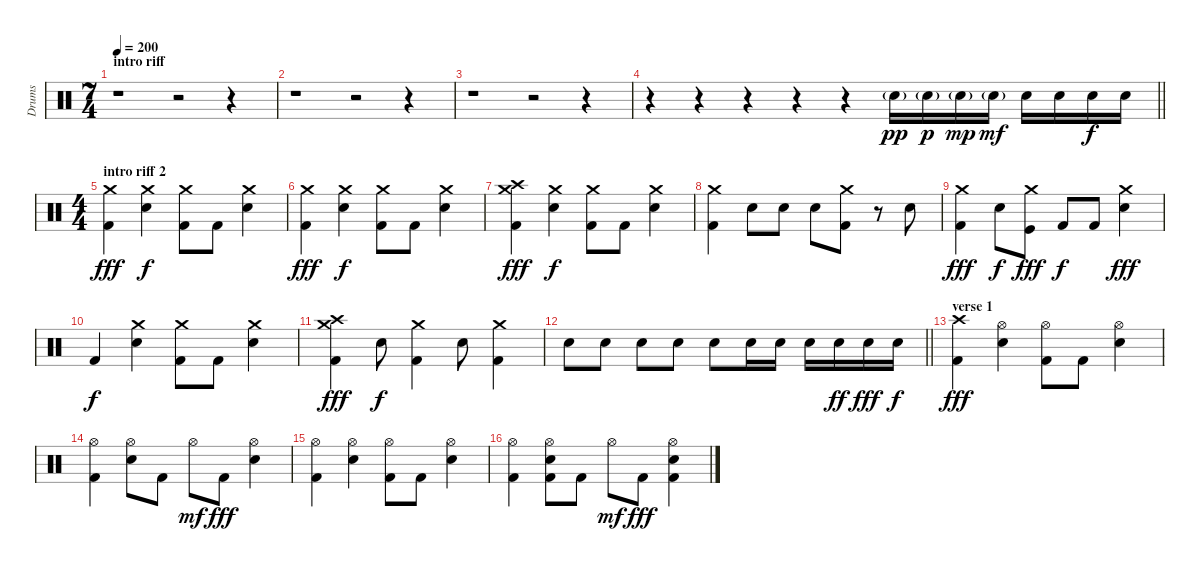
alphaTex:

\track ("Drums" "Drums") {instrument percussion}
\staff {score}
\articulation defaults
\ts (7 4)
\section ("" "intro riff")
\tempo 200
\clef neutral
\ks c
r.1{dy pp} r.2 r.4 |
r.1 r.2 r.4 |
r.1 r.2 r.4 |
\barLineRight lightlight
r.4 r.4 r.4 r.4 r.4 "Electric Snare (hit)"{g}.16 "Electric Snare (hit)"{g}.16{dy p} "Electric Snare (hit)"{g}.16{dy mp} "Electric Snare (hit)"{g}.16{dy mf} "Electric Snare (hit)".16 "Electric Snare (hit)".16 "Electric Snare (hit)".16{dy f} "Electric Snare (hit)".16 |
\ts (4 4)
\section ("" "intro riff 2")
("Crash medium (hit)" "Kick (hit) 2").4{dy fff} ("Crash medium (hit)" "Electric Snare (hit)").4{dy f} ("Crash medium (hit)" "Kick (hit) 2").8 "Kick (hit) 2".8 ("Crash medium (hit)" "Electric Snare (hit)").4 |
("Crash medium (hit)" "Kick (hit) 2").4{dy fff} ("Crash medium (hit)" "Electric Snare (hit)").4{dy f} ("Crash medium (hit)" "Kick (hit) 2").8 "Kick (hit) 2".8 ("Crash medium (hit)" "Electric Snare (hit)").4 |
("Crash medium (hit)" "Crash high (hit)" "Kick (hit) 2").4{dy fff} ("Crash medium (hit)" "Electric Snare (hit)").4{dy f} ("Crash medium (hit)" "Kick (hit) 2").8 "Kick (hit) 2".8 ("Crash medium (hit)" "Electric Snare (hit)").4 |
("Crash medium (hit)" "Kick (hit) 2").4 "Electric Snare (hit)".8 "Electric Snare (hit)".8 "Electric Snare (hit)".8 ("Crash medium (hit)" "Kick (hit) 2").8 r.8 "Electric Snare (hit)".8 |
("Crash medium (hit)" "Kick (hit) 2").4{dy fff} "Electric Snare (hit)".8{dy f} ("Crash medium (hit)" "Kick (hit)").8{dy fff} "Kick (hit) 2".8{dy f} "Kick (hit) 2".8 ("Crash medium (hit)" "Electric Snare (hit)").4{dy fff} |
"Kick (hit) 2".4{dy f} ("Crash medium (hit)" "Electric Snare (hit)").4 ("Crash medium (hit)" "Kick (hit) 2").8 "Kick (hit) 2".8 ("Crash medium (hit)" "Electric Snare (hit)").4 |
("Crash medium (hit)" "Crash high (hit)" "Kick (hit) 2").4{dy fff} "Electric Snare (hit)".8{dy f} ("Crash medium (hit)" "Kick (hit) 2").4 "Electric Snare (hit)".8 ("Crash medium (hit)" "Kick (hit) 2").4 |
\barLineRight lightlight "Electric Snare (hit)".8 "Electric Snare (hit)".8 "Electric Snare (hit)".8 "Electric Snare (hit)".8 "Electric Snare (hit)".8 "Electric Snare (hit)".16 "Electric Snare (hit)".16 "Electric Snare (hit)".16 "Electric Snare (hit)".16{dy ff} "Electric Snare (hit)".16{dy fff} "Electric Snare (hit)".16{dy f}
|
\section ("" "verse 1")
("Crash high (hit)" "Kick (hit) 2").4{dy fff} ("Hi-Hat (open)" "Electric Snare (hit)").4 ("Hi-Hat (open)" "Kick (hit) 2").8 "Kick (hit) 2".8 ("Hi-Hat (open)" "Electric Snare (hit)").4 |
("Hi-Hat (open)" "Kick (hit) 2").4 ("Hi-Hat (open)" "Electric Snare (hit)").8 "Kick (hit) 2".8 "Hi-Hat (open)".8{dy mf} "Kick (hit) 2".8{dy fff} ("Hi-Hat (open)" "Electric Snare (hit)").4 |
("Hi-Hat (open)" "Kick (hit) 2").4 ("Hi-Hat (open)" "Electric Snare (hit)").4 ("Hi-Hat (open)" "Kick (hit) 2").8 "Kick (hit) 2".8 ("Hi-Hat (open)" "Electric Snare (hit)").4 |
("Hi-Hat (open)" "Kick (hit) 2").4 ("Hi-Hat (open)" "Electric Snare (hit)" "Kick (hit) 2").8 "Kick (hit) 2".8 "Hi-Hat (open)".8{dy mf} "Kick (hit) 2".8{dy fff} ("Hi-Hat (open)" "Electric Snare (hit)" "Kick (hit) 2").4
